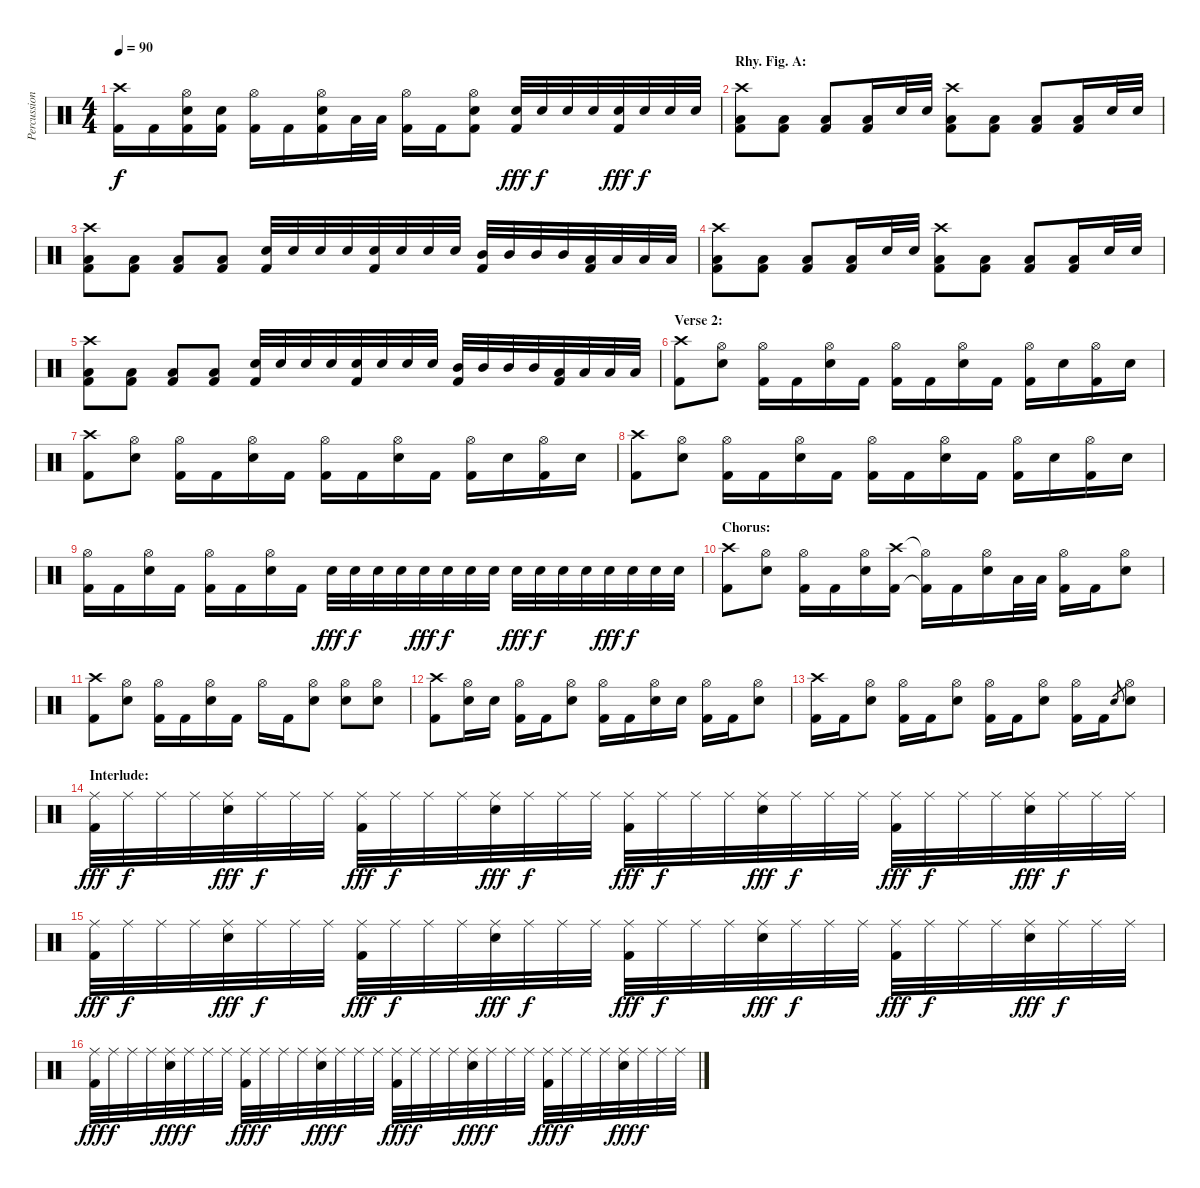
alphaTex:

\track ("Percussion" "Percussion") {instrument percussion}
\staff {score}
\articulation defaults
\ts (4 4)
\tempo 90
\clef neutral
\ks c
("Crash high (hit)" "Kick (hit) 2").16{dy f} "Kick (hit) 2".16 ("Hi-Hat (open)" "Electric Snare (hit)" "Kick (hit) 2").16 ("Electric Snare (hit)" "Kick (hit) 2").16 ("Hi-Hat (open)" "Kick (hit) 2").16 "Kick (hit) 2".16 ("Hi-Hat (open)" "Electric Snare (hit)" "Kick (hit) 2").16 "Low Floor Tom (hit)".32 "Low Floor Tom (hit)".32 ("Hi-Hat (open)" "Kick (hit) 2").16 "Kick (hit) 2".16 ("Hi-Hat (open)" "Electric Snare (hit)" "Kick (hit) 2").8 ("Electric Snare (hit)" "Kick (hit) 2").32{dy fff} "Electric Snare (hit)".32{dy f} "Electric Snare (hit)".32 "Electric Snare (hit)".32 ("Electric Snare (hit)" "Kick (hit) 2").32{dy fff} "Electric Snare (hit)".32{dy f} "Electric Snare (hit)".32 "Electric Snare (hit)".32 |
\section ("" "Rhy. Fig. A:")
("Crash high (hit)" "Low Floor Tom (hit)" "Kick (hit) 2").8 ("Low Floor Tom (hit)" "Kick (hit) 2").8 ("Low Floor Tom (hit)" "Kick (hit) 2").8 ("Low Floor Tom (hit)" "Kick (hit) 2").16 "Electric Snare (hit)".32 "Electric Snare (hit)".32 ("Crash high (hit)" "Low Floor Tom (hit)" "Kick (hit) 2").8 ("Low Floor Tom (hit)" "Kick (hit) 2").8 ("Low Floor Tom (hit)" "Kick (hit) 2").8 ("Low Floor Tom (hit)" "Kick (hit) 2").16 "Electric Snare (hit)".32 "Electric Snare (hit)".32 |
("Crash high (hit)" "Low Floor Tom (hit)" "Kick (hit) 2").8 ("Low Floor Tom (hit)" "Kick (hit) 2").8 ("Low Floor Tom (hit)" "Kick (hit) 2").8 ("Low Floor Tom (hit)" "Kick (hit) 2").8 ("Electric Snare (hit)" "Kick (hit) 2").32 "Electric Snare (hit)".32 "Electric Snare (hit)".32 "Electric Snare (hit)".32 ("Electric Snare (hit)" "Kick (hit) 2").32 "Electric Snare (hit)".32 "Electric Snare (hit)".32 "Electric Snare (hit)".32 ("Mid Tom (hit)" "Kick (hit) 2").32 "Mid Tom (hit)".32 "Mid Tom (hit)".32 "Mid Tom (hit)".32 ("Low Tom (hit)" "Kick (hit) 2").32 "Low Tom (hit)".32 "Low Tom (hit)".32 "Low Tom (hit)".32 |
("Crash high (hit)" "Low Floor Tom (hit)" "Kick (hit) 2").8 ("Low Floor Tom (hit)" "Kick (hit) 2").8 ("Low Floor Tom (hit)" "Kick (hit) 2").8 ("Low Floor Tom (hit)" "Kick (hit) 2").16 "Electric Snare (hit)".32 "Electric Snare (hit)".32 ("Crash high (hit)" "Low Floor Tom (hit)" "Kick (hit) 2").8 ("Low Floor Tom (hit)" "Kick (hit) 2").8 ("Low Floor Tom (hit)" "Kick (hit) 2").8 ("Low Floor Tom (hit)" "Kick (hit) 2").16 "Electric Snare (hit)".32 "Electric Snare (hit)".32 |
("Crash high (hit)" "Low Floor Tom (hit)" "Kick (hit) 2").8 ("Low Floor Tom (hit)" "Kick (hit) 2").8 ("Low Floor Tom (hit)" "Kick (hit) 2").8 ("Low Floor Tom (hit)" "Kick (hit) 2").8 ("Electric Snare (hit)" "Kick (hit) 2").32 "Electric Snare (hit)".32 "Electric Snare (hit)".32 "Electric Snare (hit)".32 ("Electric Snare (hit)" "Kick (hit) 2").32 "Electric Snare (hit)".32 "Electric Snare (hit)".32 "Electric Snare (hit)".32 ("Mid Tom (hit)" "Kick (hit) 2").32 "Mid Tom (hit)".32 "Mid Tom (hit)".32 "Mid Tom (hit)".32 ("Low Tom (hit)" "Kick (hit) 2").32 "Low Tom (hit)".32 "Low Tom (hit)".32 "Low Tom (hit)".32 |
\section ("" "Verse 2:")
("Crash high (hit)" "Kick (hit) 2").8 ("Hi-Hat (open)" "Electric Snare (hit)").8 ("Hi-Hat (open)" "Kick (hit) 2").16 "Kick (hit) 2".16 ("Hi-Hat (open)" "Electric Snare (hit)").16 "Kick (hit) 2".16 ("Hi-Hat (open)" "Kick (hit) 2").16 "Kick (hit) 2".16 ("Hi-Hat (open)" "Electric Snare (hit)").16 "Kick (hit) 2".16 ("Hi-Hat (open)" "Kick (hit) 2").16 "Electric Snare (hit)".16 ("Hi-Hat (open)" "Kick (hit) 2").16 "Electric Snare (hit)".16 |
("Crash high (hit)" "Kick (hit) 2").8 ("Hi-Hat (open)" "Electric Snare (hit)").8 ("Hi-Hat (open)" "Kick (hit) 2").16 "Kick (hit) 2".16 ("Hi-Hat (open)" "Electric Snare (hit)").16 "Kick (hit) 2".16 ("Hi-Hat (open)" "Kick (hit) 2").16 "Kick (hit) 2".16 ("Hi-Hat (open)" "Electric Snare (hit)").16 "Kick (hit) 2".16 ("Hi-Hat (open)" "Kick (hit) 2").16 "Electric Snare (hit)".16 ("Hi-Hat (open)" "Kick (hit) 2").16 "Electric Snare (hit)".16 |
("Crash high (hit)" "Kick (hit) 2").8 ("Hi-Hat (open)" "Electric Snare (hit)").8 ("Hi-Hat (open)" "Kick (hit) 2").16 "Kick (hit) 2".16 ("Hi-Hat (open)" "Electric Snare (hit)").16 "Kick (hit) 2".16 ("Hi-Hat (open)" "Kick (hit) 2").16 "Kick (hit) 2".16 ("Hi-Hat (open)" "Electric Snare (hit)").16 "Kick (hit) 2".16 ("Hi-Hat (open)" "Kick (hit) 2").16 "Electric Snare (hit)".16 ("Hi-Hat (open)" "Kick (hit) 2").16 "Electric Snare (hit)".16 |
("Hi-Hat (open)" "Kick (hit) 2").16 "Kick (hit) 2".16 ("Hi-Hat (open)" "Electric Snare (hit)").16 "Kick (hit) 2".16 ("Hi-Hat (open)" "Kick (hit) 2").16 "Kick (hit) 2".16 ("Hi-Hat (open)" "Electric Snare (hit)").16 "Kick (hit) 2".16 "Electric Snare (hit)".32{dy fff} "Electric Snare (hit)".32{dy f} "Electric Snare (hit)".32 "Electric Snare (hit)".32 "Electric Snare (hit)".32{dy fff} "Electric Snare (hit)".32{dy f} "Electric Snare (hit)".32 "Electric Snare (hit)".32 "Electric Snare (hit)".32{dy fff} "Electric Snare (hit)".32{dy f} "Electric Snare (hit)".32 "Electric Snare (hit)".32 "Electric Snare (hit)".32{dy fff} "Electric Snare (hit)".32{dy f} "Electric Snare (hit)".32 "Electric Snare (hit)".32 |
\section ("" "Chorus:")
("Crash high (hit)" "Kick (hit) 2").8 ("Hi-Hat (open)" "Electric Snare (hit)").8 ("Hi-Hat (open)" "Kick (hit) 2").16 "Kick (hit) 2".16 ("Hi-Hat (open)" "Electric Snare (hit)").16 ("Crash high (hit)" "Kick (hit) 2").16 ("Hi-Hat (open)"{t} "Kick (hit) 2"{t}).16 "Kick (hit) 2".16 ("Hi-Hat (open)" "Electric Snare (hit)").16 "Low Floor Tom (hit)".32 "Low Floor Tom (hit)".32 ("Hi-Hat (open)" "Kick (hit) 2").16 "Kick (hit) 2".16 ("Hi-Hat (open)" "Electric Snare (hit)").8 |
("Crash high (hit)" "Kick (hit) 2").8 ("Hi-Hat (open)" "Electric Snare (hit)").8 ("Hi-Hat (open)" "Kick (hit) 2").16 "Kick (hit) 2".16 ("Hi-Hat (open)" "Electric Snare (hit)").16 "Kick (hit) 2".16 "Hi-Hat (open)".16 "Kick (hit) 2".16 ("Hi-Hat (open)" "Electric Snare (hit)").8 ("Hi-Hat (open)" "Electric Snare (hit)").8 ("Hi-Hat (open)" "Electric Snare (hit)").8 |
("Crash high (hit)" "Kick (hit) 2").8 ("Hi-Hat (open)" "Electric Snare (hit)").16 "Electric Snare (hit)".16 ("Hi-Hat (open)" "Kick (hit) 2").16 "Kick (hit) 2".16 ("Hi-Hat (open)" "Electric Snare (hit)").8 ("Hi-Hat (open)" "Kick (hit) 2").16 "Kick (hit) 2".16 ("Hi-Hat (open)" "Electric Snare (hit)").16 "Electric Snare (hit)".16 ("Hi-Hat (open)" "Kick (hit) 2").16 "Kick (hit) 2".16 ("Hi-Hat (open)" "Electric Snare (hit)").8 |
("Crash high (hit)" "Kick (hit) 2").16 "Kick (hit) 2".16 ("Hi-Hat (open)" "Electric Snare (hit)").8 ("Hi-Hat (open)" "Kick (hit) 2").16 "Kick (hit) 2".16 ("Hi-Hat (open)" "Electric Snare (hit)").8 ("Hi-Hat (open)" "Kick (hit) 2").16 "Kick (hit) 2".16 ("Hi-Hat (open)" "Electric Snare (hit)").8 ("Hi-Hat (open)" "Kick (hit) 2").16 "Kick (hit) 2".16 "Electric Snare (hit)".8{gr} ("Hi-Hat (open)" "Electric Snare (hit)").8 |
\section ("" "Interlude:")
("Ride (middle)" "Kick (hit) 2").32{dy fff} "Ride (middle)".32{dy f} "Ride (middle)".32 "Ride (middle)".32 ("Ride (middle)" "Electric Snare (hit)").32{dy fff} "Ride (middle)".32{dy f} "Ride (middle)".32 "Ride (middle)".32 ("Ride (middle)" "Kick (hit) 2").32{dy fff} "Ride (middle)".32{dy f} "Ride (middle)".32 "Ride (middle)".32 ("Ride (middle)" "Electric Snare (hit)").32{dy fff} "Ride (middle)".32{dy f} "Ride (middle)".32 "Ride (middle)".32 ("Ride (middle)" "Kick (hit) 2").32{dy fff} "Ride (middle)".32{dy f} "Ride (middle)".32 "Ride (middle)".32 ("Ride (middle)" "Electric Snare (hit)").32{dy fff} "Ride (middle)".32{dy f} "Ride (middle)".32 "Ride (middle)".32 ("Ride (middle)" "Kick (hit) 2").32{dy fff} "Ride (middle)".32{dy f} "Ride (middle)".32 "Ride (middle)".32 ("Ride (middle)" "Electric Snare (hit)").32{dy fff} "Ride (middle)".32{dy f} "Ride (middle)".32 "Ride (middle)".32 |
("Ride (middle)" "Kick (hit) 2").32{dy fff} "Ride (middle)".32{dy f} "Ride (middle)".32 "Ride (middle)".32 ("Ride (middle)" "Electric Snare (hit)").32{dy fff} "Ride (middle)".32{dy f} "Ride (middle)".32 "Ride (middle)".32 ("Ride (middle)" "Kick (hit) 2").32{dy fff} "Ride (middle)".32{dy f} "Ride (middle)".32 "Ride (middle)".32 ("Ride (middle)" "Electric Snare (hit)").32{dy fff} "Ride (middle)".32{dy f} "Ride (middle)".32 "Ride (middle)".32 ("Ride (middle)" "Kick (hit) 2").32{dy fff} "Ride (middle)".32{dy f} "Ride (middle)".32 "Ride (middle)".32 ("Ride (middle)" "Electric Snare (hit)").32{dy fff} "Ride (middle)".32{dy f} "Ride (middle)".32 "Ride (middle)".32 ("Ride (middle)" "Kick (hit) 2").32{dy fff} "Ride (middle)".32{dy f} "Ride (middle)".32 "Ride (middle)".32 ("Ride (middle)" "Electric Snare (hit)").32{dy fff} "Ride (middle)".32{dy f} "Ride (middle)".32 "Ride (middle)".32 |
("Ride (middle)" "Kick (hit) 2").32{dy fff} "Ride (middle)".32{dy f} "Ride (middle)".32 "Ride (middle)".32 ("Ride (middle)" "Electric Snare (hit)").32{dy fff} "Ride (middle)".32{dy f} "Ride (middle)".32 "Ride (middle)".32 ("Ride (middle)" "Kick (hit) 2").32{dy fff} "Ride (middle)".32{dy f} "Ride (middle)".32 "Ride (middle)".32 ("Ride (middle)" "Electric Snare (hit)").32{dy fff} "Ride (middle)".32{dy f} "Ride (middle)".32 "Ride (middle)".32 ("Ride (middle)" "Kick (hit) 2").32{dy fff} "Ride (middle)".32{dy f} "Ride (middle)".32 "Ride (middle)".32 ("Ride (middle)" "Electric Snare (hit)").32{dy fff} "Ride (middle)".32{dy f} "Ride (middle)".32 "Ride (middle)".32 ("Ride (middle)" "Kick (hit) 2").32{dy fff} "Ride (middle)".32{dy f} "Ride (middle)".32 "Ride (middle)".32 ("Ride (middle)" "Electric Snare (hit)").32{dy fff} "Ride (middle)".32{dy f} "Ride (middle)".32 "Ride (middle)".32
